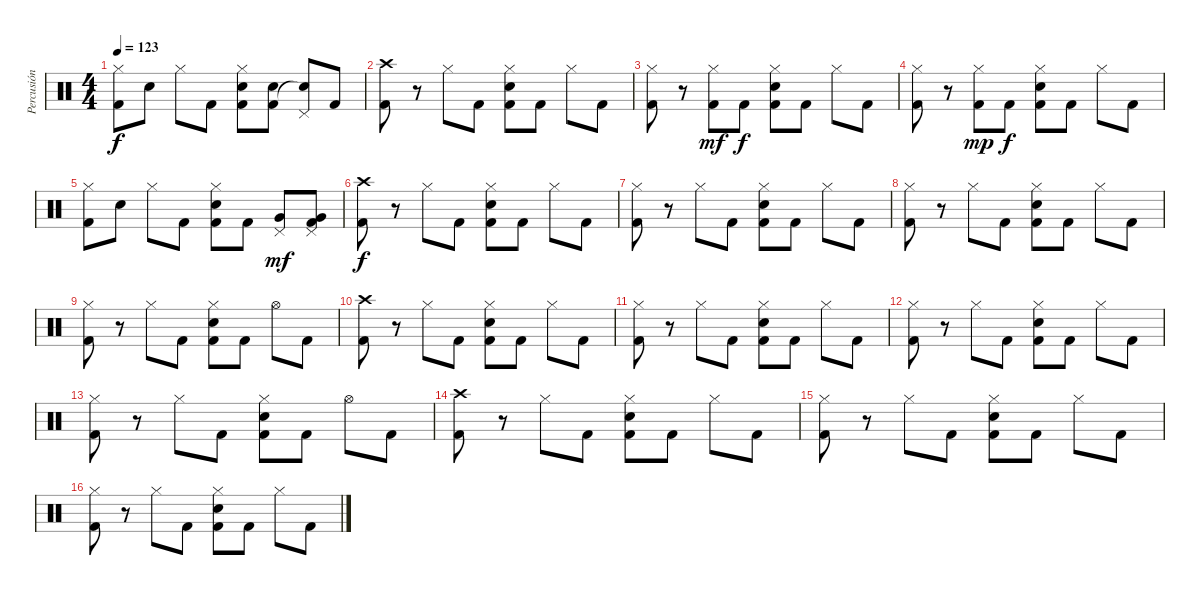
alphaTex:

\track ("Percusión" "Percusión") {instrument percussion}
\staff {score}
\articulation defaults
\ts (4 4)
\tempo 123
\clef neutral
\ks c
("Hi-Hat (closed)" "Kick (hit) 2").8{dy f} "Snare (hit) 2".8 "Hi-Hat (closed)".8 "Kick (hit) 2".8 ("Hi-Hat (closed)" "Snare (hit) 2" "Kick (hit) 2").8 ("Snare (hit) 2" "Kick (hit) 2").8 ("Pedal Hi-Hat (hit)" "Snare (hit) 2"{t}).8 "Kick (hit) 2".8 |
("Crash high (hit)" "Kick (hit) 2").8 r.8 "Hi-Hat (closed)".8 "Kick (hit) 2".8 ("Hi-Hat (closed)" "Snare (hit) 2" "Kick (hit) 2").8 "Kick (hit) 2".8 "Hi-Hat (closed)".8 "Kick (hit) 2".8 |
("Hi-Hat (closed)" "Kick (hit) 2").8 r.8 ("Hi-Hat (closed)" "Kick (hit) 2").8{dy mf} "Kick (hit) 2".8{dy f} ("Hi-Hat (closed)" "Snare (hit) 2" "Kick (hit) 2").8 "Kick (hit) 2".8 "Hi-Hat (closed)".8 "Kick (hit) 2".8 |
("Hi-Hat (closed)" "Kick (hit) 2").8 r.8 ("Hi-Hat (closed)" "Kick (hit) 2").8{dy mp} "Kick (hit) 2".8{dy f} ("Hi-Hat (closed)" "Snare (hit) 2" "Kick (hit) 2").8 "Kick (hit) 2".8 "Hi-Hat (closed)".8 "Kick (hit) 2".8 |
("Hi-Hat (closed)" "Kick (hit) 2").8 "Snare (hit) 2".8 "Hi-Hat (closed)".8 "Kick (hit) 2".8 ("Hi-Hat (closed)" "Snare (hit) 2" "Kick (hit) 2").8 "Kick (hit) 2".8 ("Pedal Hi-Hat (hit)" "Very Low Tom (hit)").8{dy mf} ("Pedal Hi-Hat (hit)" "Very Low Tom (hit)" "Kick (hit) 2").8 |
("Crash high (hit)" "Kick (hit) 2").8{dy f} r.8 "Hi-Hat (closed)".8 "Kick (hit) 2".8 ("Hi-Hat (closed)" "Snare (hit) 2" "Kick (hit) 2").8 "Kick (hit) 2".8 "Hi-Hat (closed)".8 "Kick (hit) 2".8 |
("Hi-Hat (closed)" "Kick (hit) 2").8 r.8 "Hi-Hat (closed)".8 "Kick (hit) 2".8 ("Hi-Hat (closed)" "Snare (hit) 2" "Kick (hit) 2").8 "Kick (hit) 2".8 "Hi-Hat (closed)".8 "Kick (hit) 2".8 |
("Hi-Hat (closed)" "Kick (hit) 2").8 r.8 "Hi-Hat (closed)".8 "Kick (hit) 2".8 ("Hi-Hat (closed)" "Snare (hit) 2" "Kick (hit) 2").8 "Kick (hit) 2".8 "Hi-Hat (closed)".8 "Kick (hit) 2".8 |
("Hi-Hat (closed)" "Kick (hit) 2").8 r.8 "Hi-Hat (closed)".8 "Kick (hit) 2".8 ("Hi-Hat (closed)" "Snare (hit) 2" "Kick (hit) 2").8 "Kick (hit) 2".8 "Hi-Hat (open)".8 "Kick (hit) 2".8 |
("Crash high (hit)" "Kick (hit) 2").8 r.8 "Hi-Hat (closed)".8 "Kick (hit) 2".8 ("Hi-Hat (closed)" "Snare (hit) 2" "Kick (hit) 2").8 "Kick (hit) 2".8 "Hi-Hat (closed)".8 "Kick (hit) 2".8 |
("Hi-Hat (closed)" "Kick (hit) 2").8 r.8 "Hi-Hat (closed)".8 "Kick (hit) 2".8 ("Hi-Hat (closed)" "Snare (hit) 2" "Kick (hit) 2").8 "Kick (hit) 2".8 "Hi-Hat (closed)".8 "Kick (hit) 2".8 |
("Hi-Hat (closed)" "Kick (hit) 2").8 r.8 "Hi-Hat (closed)".8 "Kick (hit) 2".8 ("Hi-Hat (closed)" "Snare (hit) 2" "Kick (hit) 2").8 "Kick (hit) 2".8 "Hi-Hat (closed)".8 "Kick (hit) 2".8 |
("Hi-Hat (closed)" "Kick (hit) 2").8 r.8 "Hi-Hat (closed)".8 "Kick (hit) 2".8 ("Hi-Hat (closed)" "Snare (hit) 2" "Kick (hit) 2").8 "Kick (hit) 2".8 "Hi-Hat (open)".8 "Kick (hit) 2".8 |
("Crash high (hit)" "Kick (hit) 2").8 r.8 "Hi-Hat (closed)".8 "Kick (hit) 2".8 ("Hi-Hat (closed)" "Snare (hit) 2" "Kick (hit) 2").8 "Kick (hit) 2".8 "Hi-Hat (closed)".8 "Kick (hit) 2".8 |
("Hi-Hat (closed)" "Kick (hit) 2").8 r.8 "Hi-Hat (closed)".8 "Kick (hit) 2".8 ("Hi-Hat (closed)" "Snare (hit) 2" "Kick (hit) 2").8 "Kick (hit) 2".8 "Hi-Hat (closed)".8 "Kick (hit) 2".8 |
("Hi-Hat (closed)" "Kick (hit) 2").8 r.8 "Hi-Hat (closed)".8 "Kick (hit) 2".8 ("Hi-Hat (closed)" "Snare (hit) 2" "Kick (hit) 2").8 "Kick (hit) 2".8 "Hi-Hat (closed)".8 "Kick (hit) 2".8
